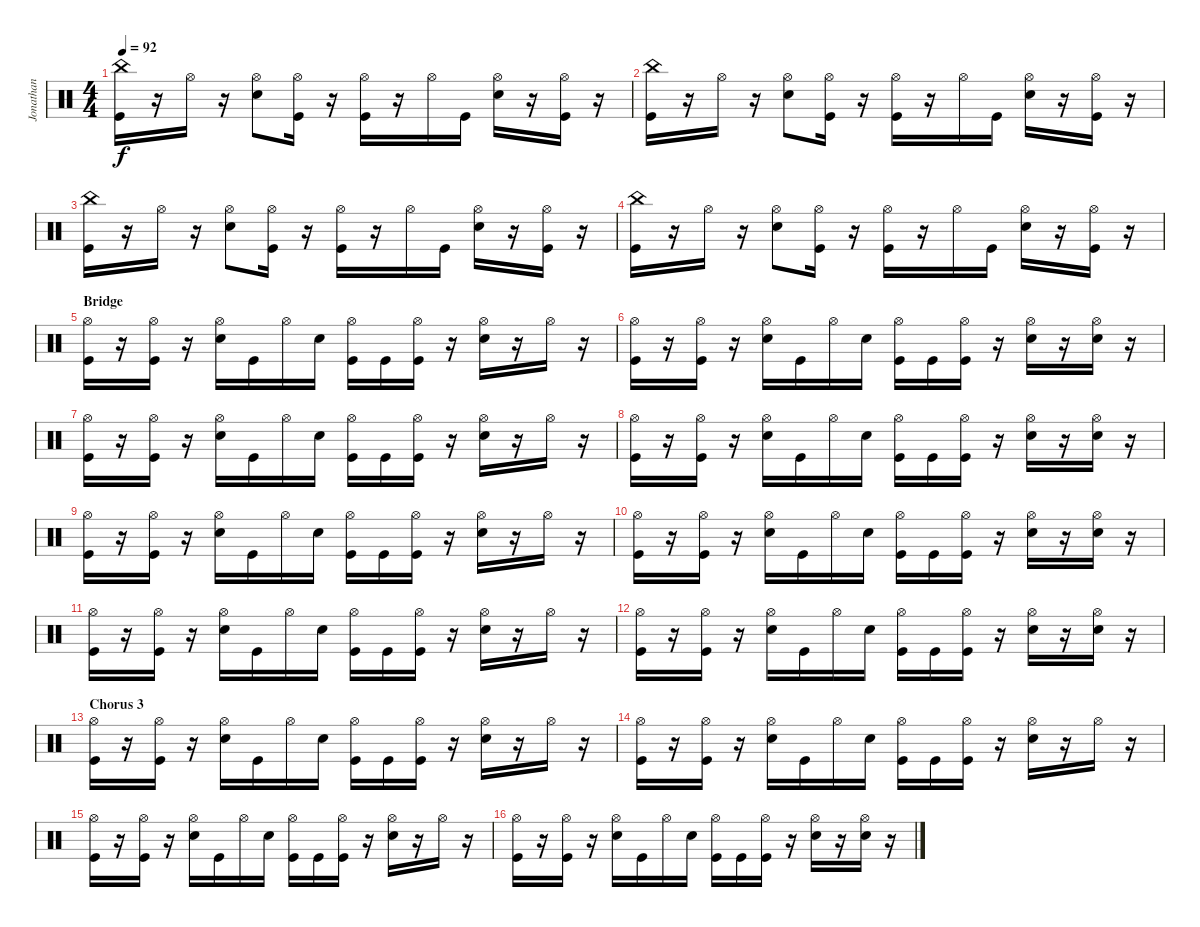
\track ("Jonathan" "Jonathan") {instrument percussion}
\staff {score}
\articulation defaults
\ts (4 4)
\tempo 92
\clef neutral
\ks c
("China (hit)" "Kick (hit)").16{dy f} r.16 "Hi-Hat (open)".16 r.16 ("Hi-Hat (open)" "Electric Snare (hit)").8 ("Hi-Hat (open)" "Kick (hit)").16 r.16 ("Hi-Hat (open)" "Kick (hit)").16 r.16 "Hi-Hat (open)".16 "Kick (hit)".16 ("Hi-Hat (open)" "Electric Snare (hit)").16 r.16 ("Hi-Hat (open)" "Kick (hit)").16 r.16 |
("China (hit)" "Kick (hit)").16 r.16 "Hi-Hat (open)".16 r.16 ("Hi-Hat (open)" "Electric Snare (hit)").8 ("Hi-Hat (open)" "Kick (hit)").16 r.16 ("Hi-Hat (open)" "Kick (hit)").16 r.16 "Hi-Hat (open)".16 "Kick (hit)".16 ("Hi-Hat (open)" "Electric Snare (hit)").16 r.16 ("Hi-Hat (open)" "Kick (hit)").16 r.16 |
("China (hit)" "Kick (hit)").16 r.16 "Hi-Hat (open)".16 r.16 ("Hi-Hat (open)" "Electric Snare (hit)").8 ("Hi-Hat (open)" "Kick (hit)").16 r.16 ("Hi-Hat (open)" "Kick (hit)").16 r.16 "Hi-Hat (open)".16 "Kick (hit)".16 ("Hi-Hat (open)" "Electric Snare (hit)").16 r.16 ("Hi-Hat (open)" "Kick (hit)").16 r.16 |
("China (hit)" "Kick (hit)").16 r.16 "Hi-Hat (open)".16 r.16 ("Hi-Hat (open)" "Electric Snare (hit)").8 ("Hi-Hat (open)" "Kick (hit)").16 r.16 ("Hi-Hat (open)" "Kick (hit)").16 r.16 "Hi-Hat (open)".16 "Kick (hit)".16 ("Hi-Hat (open)" "Electric Snare (hit)").16 r.16 ("Hi-Hat (open)" "Kick (hit)").16 r.16 |
\section ("" "Bridge")
("Hi-Hat (open)" "Kick (hit)").16 r.16 ("Hi-Hat (open)" "Kick (hit)").16 r.16 ("Hi-Hat (open)" "Electric Snare (hit)").16 "Kick (hit)".16 "Hi-Hat (open)".16 "Electric Snare (hit)".16 ("Hi-Hat (open)" "Kick (hit)").16 "Kick (hit)".16 ("Hi-Hat (open)" "Kick (hit)").16 r.16 ("Hi-Hat (open)" "Electric Snare (hit)").16 r.16 "Hi-Hat (open)".16 r.16 |
("Hi-Hat (open)" "Kick (hit)").16 r.16 ("Hi-Hat (open)" "Kick (hit)").16 r.16 ("Hi-Hat (open)" "Electric Snare (hit)").16 "Kick (hit)".16 "Hi-Hat (open)".16 "Electric Snare (hit)".16 ("Hi-Hat (open)" "Kick (hit)").16 "Kick (hit)".16 ("Hi-Hat (open)" "Kick (hit)").16 r.16 ("Hi-Hat (open)" "Electric Snare (hit)").16 r.16 ("Hi-Hat (open)" "Electric Snare (hit)").16 r.16 |
("Hi-Hat (open)" "Kick (hit)").16 r.16 ("Hi-Hat (open)" "Kick (hit)").16 r.16 ("Hi-Hat (open)" "Electric Snare (hit)").16 "Kick (hit)".16 "Hi-Hat (open)".16 "Electric Snare (hit)".16 ("Hi-Hat (open)" "Kick (hit)").16 "Kick (hit)".16 ("Hi-Hat (open)" "Kick (hit)").16 r.16 ("Hi-Hat (open)" "Electric Snare (hit)").16 r.16 "Hi-Hat (open)".16 r.16 |
("Hi-Hat (open)" "Kick (hit)").16 r.16 ("Hi-Hat (open)" "Kick (hit)").16 r.16 ("Hi-Hat (open)" "Electric Snare (hit)").16 "Kick (hit)".16 "Hi-Hat (open)".16 "Electric Snare (hit)".16 ("Hi-Hat (open)" "Kick (hit)").16 "Kick (hit)".16 ("Hi-Hat (open)" "Kick (hit)").16 r.16 ("Hi-Hat (open)" "Electric Snare (hit)").16 r.16 ("Hi-Hat (open)" "Electric Snare (hit)").16 r.16 |
("Hi-Hat (open)" "Kick (hit)").16 r.16 ("Hi-Hat (open)" "Kick (hit)").16 r.16 ("Hi-Hat (open)" "Electric Snare (hit)").16 "Kick (hit)".16 "Hi-Hat (open)".16 "Electric Snare (hit)".16 ("Hi-Hat (open)" "Kick (hit)").16 "Kick (hit)".16 ("Hi-Hat (open)" "Kick (hit)").16 r.16 ("Hi-Hat (open)" "Electric Snare (hit)").16 r.16 "Hi-Hat (open)".16 r.16 |
("Hi-Hat (open)" "Kick (hit)").16 r.16 ("Hi-Hat (open)" "Kick (hit)").16 r.16 ("Hi-Hat (open)" "Electric Snare (hit)").16 "Kick (hit)".16 "Hi-Hat (open)".16 "Electric Snare (hit)".16 ("Hi-Hat (open)" "Kick (hit)").16 "Kick (hit)".16 ("Hi-Hat (open)" "Kick (hit)").16 r.16 ("Hi-Hat (open)" "Electric Snare (hit)").16 r.16 ("Hi-Hat (open)" "Electric Snare (hit)").16 r.16 |
("Hi-Hat (open)" "Kick (hit)").16 r.16 ("Hi-Hat (open)" "Kick (hit)").16 r.16 ("Hi-Hat (open)" "Electric Snare (hit)").16 "Kick (hit)".16 "Hi-Hat (open)".16 "Electric Snare (hit)".16 ("Hi-Hat (open)" "Kick (hit)").16 "Kick (hit)".16 ("Hi-Hat (open)" "Kick (hit)").16 r.16 ("Hi-Hat (open)" "Electric Snare (hit)").16 r.16 "Hi-Hat (open)".16 r.16 |
("Hi-Hat (open)" "Kick (hit)").16 r.16 ("Hi-Hat (open)" "Kick (hit)").16 r.16 ("Hi-Hat (open)" "Electric Snare (hit)").16 "Kick (hit)".16 "Hi-Hat (open)".16 "Electric Snare (hit)".16 ("Hi-Hat (open)" "Kick (hit)").16 "Kick (hit)".16 ("Hi-Hat (open)" "Kick (hit)").16 r.16 ("Hi-Hat (open)" "Electric Snare (hit)").16 r.16 ("Hi-Hat (open)" "Electric Snare (hit)").16 r.16 |
\section ("" "Chorus 3")
("Hi-Hat (open)" "Kick (hit)").16 r.16 ("Hi-Hat (open)" "Kick (hit)").16 r.16 ("Hi-Hat (open)" "Electric Snare (hit)").16 "Kick (hit)".16 "Hi-Hat (open)".16 "Electric Snare (hit)".16 ("Hi-Hat (open)" "Kick (hit)").16 "Kick (hit)".16 ("Hi-Hat (open)" "Kick (hit)").16 r.16 ("Hi-Hat (open)" "Electric Snare (hit)").16 r.16 "Hi-Hat (open)".16 r.16 |
("Hi-Hat (open)" "Kick (hit)").16 r.16 ("Hi-Hat (open)" "Kick (hit)").16 r.16 ("Hi-Hat (open)" "Electric Snare (hit)").16 "Kick (hit)".16 "Hi-Hat (open)".16 "Electric Snare (hit)".16 ("Hi-Hat (open)" "Kick (hit)").16 "Kick (hit)".16 ("Hi-Hat (open)" "Kick (hit)").16 r.16 ("Hi-Hat (open)" "Electric Snare (hit)").16 r.16 "Hi-Hat (open)".16 r.16 |
("Hi-Hat (open)" "Kick (hit)").16 r.16 ("Hi-Hat (open)" "Kick (hit)").16 r.16 ("Hi-Hat (open)" "Electric Snare (hit)").16 "Kick (hit)".16 "Hi-Hat (open)".16 "Electric Snare (hit)".16 ("Hi-Hat (open)" "Kick (hit)").16 "Kick (hit)".16 ("Hi-Hat (open)" "Kick (hit)").16 r.16 ("Hi-Hat (open)" "Electric Snare (hit)").16 r.16 "Hi-Hat (open)".16 r.16 |
("Hi-Hat (open)" "Kick (hit)").16 r.16 ("Hi-Hat (open)" "Kick (hit)").16 r.16 ("Hi-Hat (open)" "Electric Snare (hit)").16 "Kick (hit)".16 "Hi-Hat (open)".16 "Electric Snare (hit)".16 ("Hi-Hat (open)" "Kick (hit)").16 "Kick (hit)".16 ("Hi-Hat (open)" "Kick (hit)").16 r.16 ("Hi-Hat (open)" "Electric Snare (hit)").16 r.16 ("Hi-Hat (open)" "Electric Snare (hit)").16 r.16
